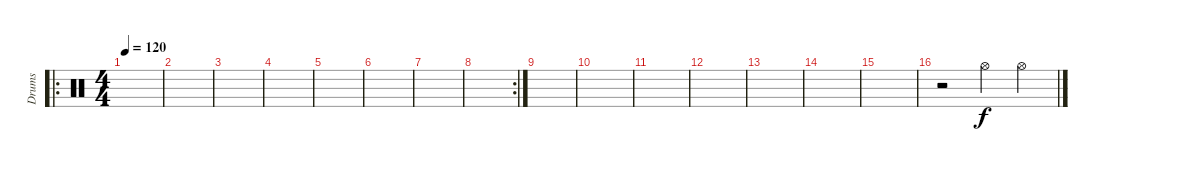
\track ("Drums" "Drums") {instrument percussion}
\staff {score}
\articulation defaults
\ro
\ts (4 4)
\tempo 120
\clef neutral
\ks c
|
|
|
|
|
|
|
\rc 2
|
|
|
|
|
|
|
|
r.2 "Hi-Hat (open)".4 "Hi-Hat (open)".4
